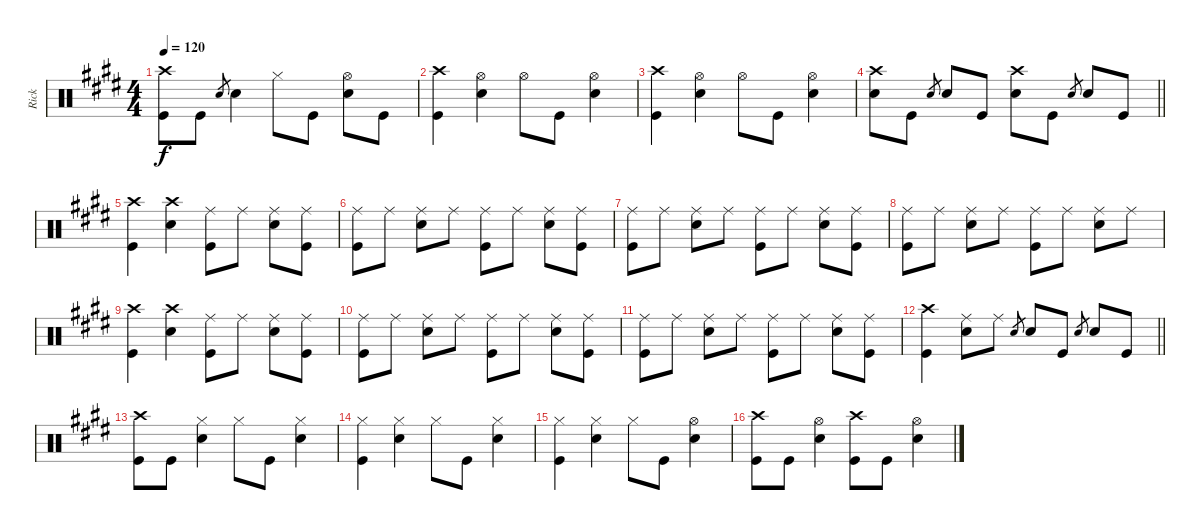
\track ("Rick" "Rick") {instrument percussion}
\staff {score}
\articulation defaults
\ts (4 4)
\tempo 120
\clef neutral
\ks c#minor
("Crash high (hit)" "Kick (hit)").8{dy f} "Kick (hit)".8 "Snare (hit) 2".8{gr} "Snare (hit) 2".4 "Hi-Hat (closed)".8 "Kick (hit)".8 ("Hi-Hat (open)" "Snare (hit) 2").8 "Kick (hit)".8 |
("Crash high (hit)" "Kick (hit)").4 ("Hi-Hat (open)" "Snare (hit) 2").4 "Hi-Hat (open)".8 "Kick (hit)".8 ("Hi-Hat (open)" "Snare (hit) 2").4 |
("Crash high (hit)" "Kick (hit)").4 ("Hi-Hat (open)" "Snare (hit) 2").4 "Hi-Hat (open)".8 "Kick (hit)".8 ("Hi-Hat (open)" "Snare (hit) 2").4 |
\barLineRight lightlight
("Crash high (hit)" "Snare (hit) 2").8 "Kick (hit)".8 "Snare (hit) 2".8{gr} "Snare (hit) 2".8 "Kick (hit)".8 ("Crash high (hit)" "Snare (hit) 2").8 "Kick (hit)".8 "Snare (hit) 2".8{gr} "Snare (hit) 2".8 "Kick (hit)".8 |
("Crash high (hit)" "Kick (hit)").4 ("Crash high (hit)" "Snare (hit) 2").4 ("Ride (middle)" "Kick (hit)").8 "Ride (middle)".8 ("Ride (middle)" "Snare (hit) 2").8 ("Ride (middle)" "Kick (hit)").8 |
("Ride (middle)" "Kick (hit)").8 "Ride (middle)".8 ("Ride (middle)" "Snare (hit) 2").8 "Ride (middle)".8 ("Ride (middle)" "Kick (hit)").8 "Ride (middle)".8 ("Ride (middle)" "Snare (hit) 2").8 ("Ride (middle)" "Kick (hit)").8 |
("Ride (middle)" "Kick (hit)").8 "Ride (middle)".8 ("Ride (middle)" "Snare (hit) 2").8 "Ride (middle)".8 ("Ride (middle)" "Kick (hit)").8 "Ride (middle)".8 ("Ride (middle)" "Snare (hit) 2").8 ("Ride (middle)" "Kick (hit)").8 |
("Ride (middle)" "Kick (hit)").8 "Ride (middle)".8 ("Ride (middle)" "Snare (hit) 2").8 "Ride (middle)".8 ("Ride (middle)" "Kick (hit)").8 "Ride (middle)".8 ("Ride (middle)" "Snare (hit) 2").8 "Ride (middle)".8 |
("Crash high (hit)" "Kick (hit)").4 ("Crash high (hit)" "Snare (hit) 2").4 ("Ride (middle)" "Kick (hit)").8 "Ride (middle)".8 ("Ride (middle)" "Snare (hit) 2").8 ("Ride (middle)" "Kick (hit)").8 |
("Ride (middle)" "Kick (hit)").8 "Ride (middle)".8 ("Ride (middle)" "Snare (hit) 2").8 "Ride (middle)".8 ("Ride (middle)" "Kick (hit)").8 "Ride (middle)".8 ("Ride (middle)" "Snare (hit) 2").8 ("Ride (middle)" "Kick (hit)").8 |
("Ride (middle)" "Kick (hit)").8 "Ride (middle)".8 ("Ride (middle)" "Snare (hit) 2").8 "Ride (middle)".8 ("Ride (middle)" "Kick (hit)").8 "Ride (middle)".8 ("Ride (middle)" "Snare (hit) 2").8 ("Ride (middle)" "Kick (hit)").8 |
\barLineRight lightlight
("Crash high (hit)" "Kick (hit)").4 ("Ride (middle)" "Snare (hit) 2").8 "Ride (middle)".8 "Snare (hit) 2".8{gr} "Snare (hit) 2".8 "Kick (hit)".8 "Snare (hit) 2".8{gr} "Snare (hit) 2".8 "Kick (hit)".8 |
("Crash high (hit)" "Kick (hit)").8 "Kick (hit)".8 ("Hi-Hat (closed)" "Snare (hit) 2").4 "Hi-Hat (closed)".8 "Kick (hit)".8 ("Hi-Hat (closed)" "Snare (hit) 2").4 |
("Hi-Hat (closed)" "Kick (hit)").4 ("Hi-Hat (closed)" "Snare (hit) 2").4 "Hi-Hat (closed)".8 "Kick (hit)".8 ("Hi-Hat (closed)" "Snare (hit) 2").4 |
("Hi-Hat (closed)" "Kick (hit)").4 ("Hi-Hat (closed)" "Snare (hit) 2").4 "Hi-Hat (closed)".8 "Kick (hit)".8 ("Hi-Hat (open)" "Snare (hit) 2").4 |
("Crash high (hit)" "Kick (hit)").8 "Kick (hit)".8 ("Hi-Hat (open)" "Snare (hit) 2").4 ("Crash high (hit)" "Kick (hit)").8 "Kick (hit)".8 ("Hi-Hat (open)" "Snare (hit) 2").4
